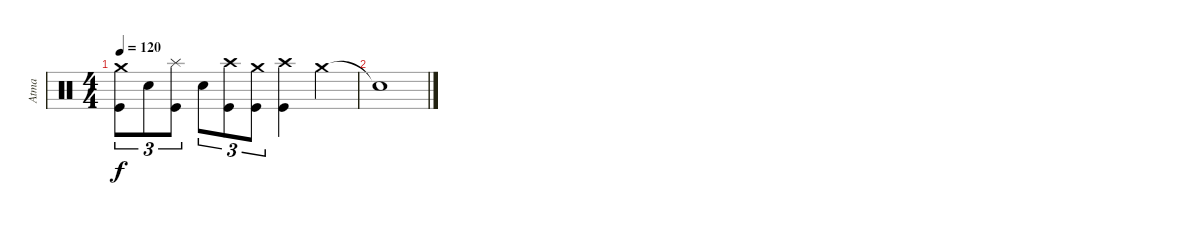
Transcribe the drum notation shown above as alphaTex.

\track ("Atma" "Atma") {instrument percussion}
\staff {score}
\articulation defaults
\ts (4 4)
\tempo 120
\clef neutral
\ks c
("Kick (hit)" "Crash medium (hit)").8{tu (3 2) dy f} "Snare (hit) 2".8{tu (3 2)} ("Kick (hit)" "Splash (hit)").8{tu (3 2)} "Snare (hit) 2".8{tu (3 2)} ("Kick (hit)" "Crash high (hit)").8{tu (3 2)} ("Kick (hit)" "Crash medium (hit)").8{tu (3 2)} ("Kick (hit)" "Crash high (hit)").4 "Crash medium (hit)".4 |
"Snare (hit)"{t}.1
